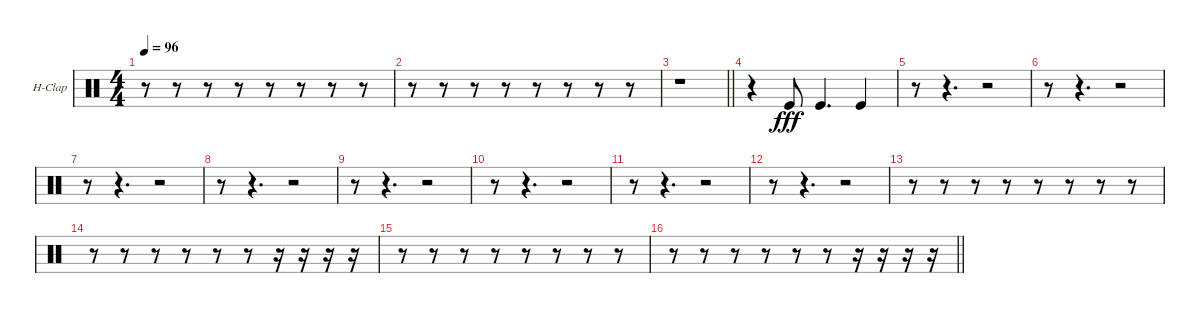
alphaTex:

\bracketExtendMode groupsimilarinstruments
\firstSystemTrackNameOrientation horizontal
\otherSystemsTrackNameOrientation horizontal
\track ("Hand Clap" "H-Clap") {instrument percussion}
\staff {score}
\articulation defaults
\ts (4 4)
\tempo 96
\clef neutral
\ks c
r.8{dy fff} r.8 r.8 r.8 r.8 r.8 r.8 r.8 |
r.8 r.8 r.8 r.8 r.8 r.8 r.8 r.8 |
\barLineRight lightlight
r.1 |
r.4 "Kick (hit)".8 "Kick (hit)".4{d} "Kick (hit)".4 |
r.8 r.4{d} r.2 |
r.8 r.4{d} r.2 |
r.8 r.4{d} r.2 |
r.8 r.4{d} r.2 |
r.8 r.4{d} r.2 |
r.8 r.4{d} r.2 |
r.8 r.4{d} r.2 |
r.8 r.4{d} r.2 |
r.8 r.8 r.8 r.8 r.8 r.8 r.8 r.8 |
r.8 r.8 r.8 r.8 r.8 r.8 r.16 r.16 r.16 r.16 |
r.8 r.8 r.8 r.8 r.8 r.8 r.8 r.8 |
\barLineRight lightlight
r.8 r.8 r.8 r.8 r.8 r.8 r.16 r.16 r.16 r.16
